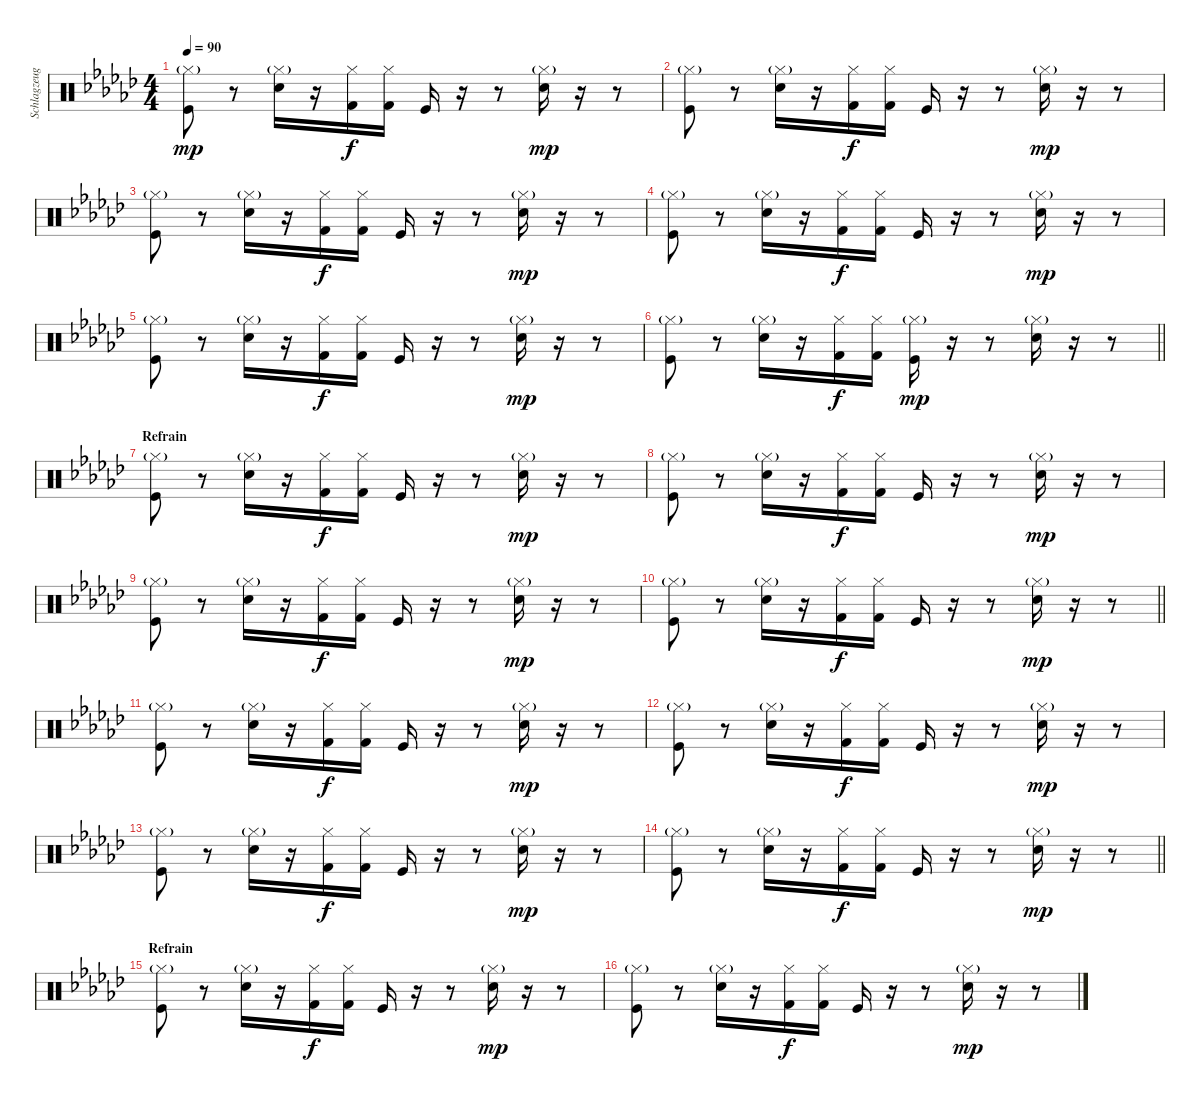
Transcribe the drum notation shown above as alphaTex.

\track ("Schlagzeug" "Schlagzeug") {instrument percussion}
\staff {score}
\articulation defaults
\ts (4 4)
\tempo 90
\clef neutral
\ks ebminor
("Hi-Hat (closed)"{g} "Kick (hit)").8{dy mp} r.8 ("Hi-Hat (closed)"{g} "Electric Snare (hit)").16 r.16 ("Hi-Hat (closed)" "Kick (hit) 2").16{dy f} ("Hi-Hat (closed)" "Kick (hit) 2").16 "Kick (hit)".16 r.16 r.8 ("Hi-Hat (closed)"{g} "Electric Snare (hit)").16{dy mp} r.16 r.8 |
("Hi-Hat (closed)"{g} "Kick (hit)").8 r.8 ("Hi-Hat (closed)"{g} "Electric Snare (hit)").16 r.16 ("Hi-Hat (closed)" "Kick (hit) 2").16{dy f} ("Hi-Hat (closed)" "Kick (hit) 2").16 "Kick (hit)".16 r.16 r.8 ("Hi-Hat (closed)"{g} "Electric Snare (hit)").16{dy mp} r.16 r.8 |
("Hi-Hat (closed)"{g} "Kick (hit)").8 r.8 ("Hi-Hat (closed)"{g} "Electric Snare (hit)").16 r.16 ("Hi-Hat (closed)" "Kick (hit) 2").16{dy f} ("Hi-Hat (closed)" "Kick (hit) 2").16 "Kick (hit)".16 r.16 r.8 ("Hi-Hat (closed)"{g} "Electric Snare (hit)").16{dy mp} r.16 r.8 |
("Hi-Hat (closed)"{g} "Kick (hit)").8 r.8 ("Hi-Hat (closed)"{g} "Electric Snare (hit)").16 r.16 ("Hi-Hat (closed)" "Kick (hit) 2").16{dy f} ("Hi-Hat (closed)" "Kick (hit) 2").16 "Kick (hit)".16 r.16 r.8 ("Hi-Hat (closed)"{g} "Electric Snare (hit)").16{dy mp} r.16 r.8 |
("Hi-Hat (closed)"{g} "Kick (hit)").8 r.8 ("Hi-Hat (closed)"{g} "Electric Snare (hit)").16 r.16 ("Hi-Hat (closed)" "Kick (hit) 2").16{dy f} ("Hi-Hat (closed)" "Kick (hit) 2").16 "Kick (hit)".16 r.16 r.8 ("Hi-Hat (closed)"{g} "Electric Snare (hit)").16{dy mp} r.16 r.8 |
\barLineRight lightlight
("Hi-Hat (closed)"{g} "Kick (hit)").8 r.8 ("Hi-Hat (closed)"{g} "Electric Snare (hit)").16 r.16 ("Hi-Hat (closed)" "Kick (hit) 2").16{dy f} ("Hi-Hat (closed)" "Kick (hit) 2").16 ("Hi-Hat (closed)"{g} "Kick (hit)").16{dy mp} r.16 r.8 ("Hi-Hat (closed)"{g} "Electric Snare (hit)").16 r.16 r.8 |
\section ("" "Refrain")
("Hi-Hat (closed)"{g} "Kick (hit)").8 r.8 ("Hi-Hat (closed)"{g} "Electric Snare (hit)").16 r.16 ("Hi-Hat (closed)" "Kick (hit) 2").16{dy f} ("Hi-Hat (closed)" "Kick (hit) 2").16 "Kick (hit)".16 r.16 r.8 ("Hi-Hat (closed)"{g} "Electric Snare (hit)").16{dy mp} r.16 r.8 |
("Hi-Hat (closed)"{g} "Kick (hit)").8 r.8 ("Hi-Hat (closed)"{g} "Electric Snare (hit)").16 r.16 ("Hi-Hat (closed)" "Kick (hit) 2").16{dy f} ("Hi-Hat (closed)" "Kick (hit) 2").16 "Kick (hit)".16 r.16 r.8 ("Hi-Hat (closed)"{g} "Electric Snare (hit)").16{dy mp} r.16 r.8 |
("Hi-Hat (closed)"{g} "Kick (hit)").8 r.8 ("Hi-Hat (closed)"{g} "Electric Snare (hit)").16 r.16 ("Hi-Hat (closed)" "Kick (hit) 2").16{dy f} ("Hi-Hat (closed)" "Kick (hit) 2").16 "Kick (hit)".16 r.16 r.8 ("Hi-Hat (closed)"{g} "Electric Snare (hit)").16{dy mp} r.16 r.8 |
\barLineRight lightlight
("Hi-Hat (closed)"{g} "Kick (hit)").8 r.8 ("Hi-Hat (closed)"{g} "Electric Snare (hit)").16 r.16 ("Hi-Hat (closed)" "Kick (hit) 2").16{dy f} ("Hi-Hat (closed)" "Kick (hit) 2").16 "Kick (hit)".16 r.16 r.8 ("Hi-Hat (closed)"{g} "Electric Snare (hit)").16{dy mp} r.16 r.8 |
("Hi-Hat (closed)"{g} "Kick (hit)").8 r.8 ("Hi-Hat (closed)"{g} "Electric Snare (hit)").16 r.16 ("Hi-Hat (closed)" "Kick (hit) 2").16{dy f} ("Hi-Hat (closed)" "Kick (hit) 2").16 "Kick (hit)".16 r.16 r.8 ("Hi-Hat (closed)"{g} "Electric Snare (hit)").16{dy mp} r.16 r.8 |
("Hi-Hat (closed)"{g} "Kick (hit)").8 r.8 ("Hi-Hat (closed)"{g} "Electric Snare (hit)").16 r.16 ("Hi-Hat (closed)" "Kick (hit) 2").16{dy f} ("Hi-Hat (closed)" "Kick (hit) 2").16 "Kick (hit)".16 r.16 r.8 ("Hi-Hat (closed)"{g} "Electric Snare (hit)").16{dy mp} r.16 r.8 |
("Hi-Hat (closed)"{g} "Kick (hit)").8 r.8 ("Hi-Hat (closed)"{g} "Electric Snare (hit)").16 r.16 ("Hi-Hat (closed)" "Kick (hit) 2").16{dy f} ("Hi-Hat (closed)" "Kick (hit) 2").16 "Kick (hit)".16 r.16 r.8 ("Hi-Hat (closed)"{g} "Electric Snare (hit)").16{dy mp} r.16 r.8 |
\barLineRight lightlight
("Hi-Hat (closed)"{g} "Kick (hit)").8 r.8 ("Hi-Hat (closed)"{g} "Electric Snare (hit)").16 r.16 ("Hi-Hat (closed)" "Kick (hit) 2").16{dy f} ("Hi-Hat (closed)" "Kick (hit) 2").16 "Kick (hit)".16 r.16 r.8 ("Hi-Hat (closed)"{g} "Electric Snare (hit)").16{dy mp} r.16 r.8 |
\section ("" "Refrain")
("Hi-Hat (closed)"{g} "Kick (hit)").8 r.8 ("Hi-Hat (closed)"{g} "Electric Snare (hit)").16 r.16 ("Hi-Hat (closed)" "Kick (hit) 2").16{dy f} ("Hi-Hat (closed)" "Kick (hit) 2").16 "Kick (hit)".16 r.16 r.8 ("Hi-Hat (closed)"{g} "Electric Snare (hit)").16{dy mp} r.16 r.8 |
("Hi-Hat (closed)"{g} "Kick (hit)").8 r.8 ("Hi-Hat (closed)"{g} "Electric Snare (hit)").16 r.16 ("Hi-Hat (closed)" "Kick (hit) 2").16{dy f} ("Hi-Hat (closed)" "Kick (hit) 2").16 "Kick (hit)".16 r.16 r.8 ("Hi-Hat (closed)"{g} "Electric Snare (hit)").16{dy mp} r.16 r.8
